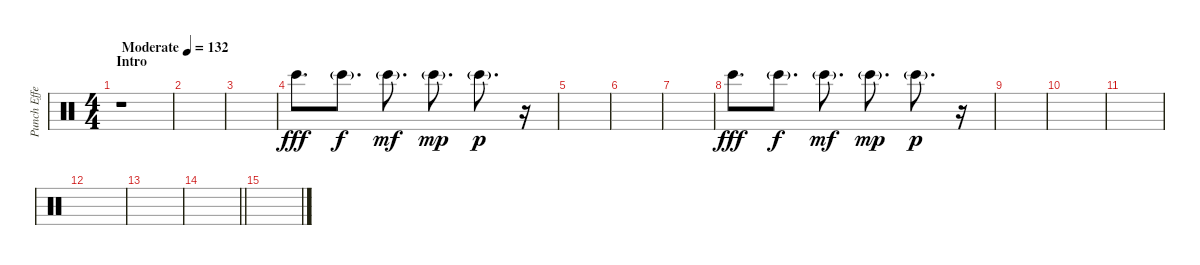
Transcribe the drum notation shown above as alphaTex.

\track ("Punch Effect" "Punch Effe") {instrument percussion}
\staff {score}
\articulation defaults
\ts (4 4)
\section ("" "Intro")
\tempo (132 "Moderate")
\clef neutral
\ks c
r.1{dy fff} |
|
|
"Bongo High (hit)".8{d} "Bongo High (hit)"{g}.8{d dy f} "Bongo High (hit)"{g}.8{d dy mf} "Bongo High (hit)"{g}.8{d dy mp} "Bongo High (hit)"{g}.8{d dy p} r.16 |
|
|
|
"Bongo High (hit)".8{d dy fff} "Bongo High (hit)"{g}.8{d dy f} "Bongo High (hit)"{g}.8{d dy mf} "Bongo High (hit)"{g}.8{d dy mp} "Bongo High (hit)"{g}.8{d dy p} r.16 |
|
|
|
|
|
\barLineRight lightlight
|
\section ("" "")
